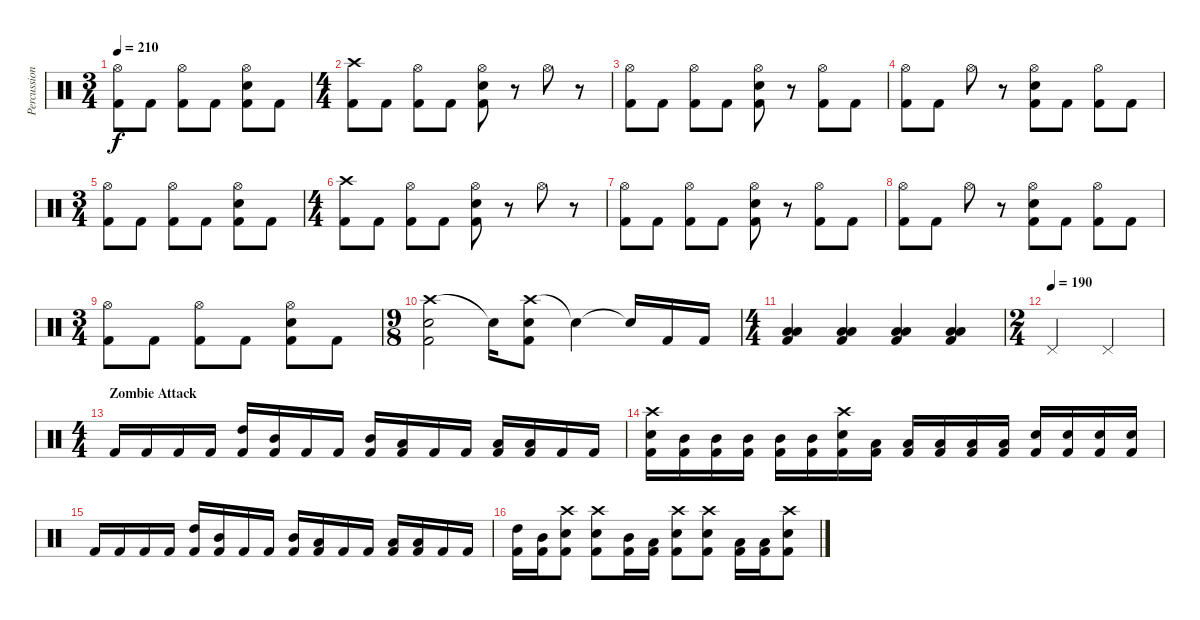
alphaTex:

\track ("Percussion" "Percussion") {instrument percussion}
\staff {score}
\articulation defaults
\ts (3 4)
\tempo 210
\clef neutral
\ks c
("Hi-Hat (open)" "Kick (hit) 2").8{dy f} "Kick (hit) 2".8 ("Hi-Hat (open)" "Kick (hit) 2").8 "Kick (hit) 2".8 ("Hi-Hat (open)" "Electric Snare (hit)" "Kick (hit) 2").8 "Kick (hit) 2".8 |
\ts (4 4)
("Crash high (hit)" "Kick (hit) 2").8 "Kick (hit) 2".8 ("Hi-Hat (open)" "Kick (hit) 2").8 "Kick (hit) 2".8 ("Hi-Hat (open)" "Electric Snare (hit)" "Kick (hit) 2").8 r.8 "Hi-Hat (open)".8 r.8 |
("Hi-Hat (open)" "Kick (hit) 2").8 "Kick (hit) 2".8 ("Hi-Hat (open)" "Kick (hit) 2").8 "Kick (hit) 2".8 ("Hi-Hat (open)" "Electric Snare (hit)" "Kick (hit) 2").8 r.8 ("Hi-Hat (open)" "Kick (hit) 2").8 "Kick (hit) 2".8 |
("Hi-Hat (open)" "Kick (hit) 2").8 "Kick (hit) 2".8 "Hi-Hat (open)".8 r.8 ("Hi-Hat (open)" "Electric Snare (hit)" "Kick (hit) 2").8 "Kick (hit) 2".8 ("Hi-Hat (open)" "Kick (hit) 2").8 "Kick (hit) 2".8 |
\ts (3 4)
("Hi-Hat (open)" "Kick (hit) 2").8 "Kick (hit) 2".8 ("Hi-Hat (open)" "Kick (hit) 2").8 "Kick (hit) 2".8 ("Hi-Hat (open)" "Electric Snare (hit)" "Kick (hit) 2").8 "Kick (hit) 2".8 |
\ts (4 4)
("Crash high (hit)" "Kick (hit) 2").8 "Kick (hit) 2".8 ("Hi-Hat (open)" "Kick (hit) 2").8 "Kick (hit) 2".8 ("Hi-Hat (open)" "Electric Snare (hit)" "Kick (hit) 2").8 r.8 "Hi-Hat (open)".8 r.8 |
("Hi-Hat (open)" "Kick (hit) 2").8 "Kick (hit) 2".8 ("Hi-Hat (open)" "Kick (hit) 2").8 "Kick (hit) 2".8 ("Hi-Hat (open)" "Electric Snare (hit)" "Kick (hit) 2").8 r.8 ("Hi-Hat (open)" "Kick (hit) 2").8 "Kick (hit) 2".8 |
("Hi-Hat (open)" "Kick (hit) 2").8 "Kick (hit) 2".8 "Hi-Hat (open)".8 r.8 ("Hi-Hat (open)" "Electric Snare (hit)" "Kick (hit) 2").8 "Kick (hit) 2".8 ("Hi-Hat (open)" "Kick (hit) 2").8 "Kick (hit) 2".8 |
\ts (3 4)
("Hi-Hat (open)" "Kick (hit) 2").8 "Kick (hit) 2".8 ("Hi-Hat (open)" "Kick (hit) 2").8 "Kick (hit) 2".8 ("Hi-Hat (open)" "Electric Snare (hit)" "Kick (hit) 2").8 "Kick (hit) 2".8 |
\ts (9 8)
("Crash high (hit)" "Electric Snare (hit)" "Kick (hit) 2").2 "Snare (hit)"{t}.16 ("Crash high (hit)" "Electric Snare (hit)" "Kick (hit) 2").8 "Snare (hit)"{t}.4 "Snare (hit)"{t}.16 "Kick (hit) 2".16 "Kick (hit) 2".16 |
\ts (4 4)
("Low Tom (hit)" "Low Floor Tom (hit)" "Kick (hit) 2").4 ("Low Floor Tom (hit)" "Low Floor Tom (hit)" "Kick (hit) 2").4 ("Low Tom (hit)" "Low Floor Tom (hit)" "Kick (hit) 2").4 ("Low Tom (hit)" "Low Floor Tom (hit)" "Kick (hit) 2").4 |
\ts (2 4)
\tempo (190)
"Pedal Hi-Hat (hit)".4 "Pedal Hi-Hat (hit)".4 |
\ts (4 4)
\section ("" "Zombie Attack")
"Kick (hit) 2".16 "Kick (hit) 2".16 "Kick (hit) 2".16 "Kick (hit) 2".16 ("High Tom (hit)" "Kick (hit) 2").16 ("Mid Tom (hit)" "Kick (hit) 2").16 "Kick (hit) 2".16 "Kick (hit) 2".16 ("Mid Tom (hit)" "Kick (hit) 2").16 ("Low Tom (hit)" "Kick (hit) 2").16 "Kick (hit) 2".16 "Kick (hit) 2".16 ("Low Tom (hit)" "Kick (hit) 2").16 ("Low Floor Tom (hit)" "Kick (hit) 2").16 "Kick (hit) 2".16 "Kick (hit) 2".16 |
("Crash high (hit)" "Electric Snare (hit)" "Kick (hit) 2").16 ("Mid Tom (hit)" "Kick (hit) 2").16 ("Mid Tom (hit)" "Kick (hit) 2").16 ("Mid Tom (hit)" "Kick (hit) 2").16 ("Mid Tom (hit)" "Kick (hit) 2").16 ("Mid Tom (hit)" "Kick (hit) 2").16 ("Crash high (hit)" "Electric Snare (hit)" "Kick (hit) 2").16 ("Low Tom (hit)" "Kick (hit) 2").16 ("Low Tom (hit)" "Kick (hit) 2").16 ("Low Tom (hit)" "Kick (hit) 2").16 ("Low Tom (hit)" "Kick (hit) 2").16 ("Low Tom (hit)" "Kick (hit) 2").16 ("Electric Snare (hit)" "Kick (hit) 2").16 ("Electric Snare (hit)" "Kick (hit) 2").16 ("Electric Snare (hit)" "Kick (hit) 2").16 ("Electric Snare (hit)" "Kick (hit) 2").16 |
"Kick (hit) 2".16 "Kick (hit) 2".16 "Kick (hit) 2".16 "Kick (hit) 2".16 ("High Tom (hit)" "Kick (hit) 2").16 ("Mid Tom (hit)" "Kick (hit) 2").16 "Kick (hit) 2".16 "Kick (hit) 2".16 ("Mid Tom (hit)" "Kick (hit) 2").16 ("Low Tom (hit)" "Kick (hit) 2").16 "Kick (hit) 2".16 "Kick (hit) 2".16 ("Low Tom (hit)" "Kick (hit) 2").16 ("Low Floor Tom (hit)" "Kick (hit) 2").16 "Kick (hit) 2".16 "Kick (hit) 2".16 |
("High Tom (hit)" "Kick (hit) 2").16 ("Mid Tom (hit)" "Kick (hit) 2").16 ("Crash high (hit)" "Electric Snare (hit)" "Kick (hit) 2").8 ("Crash high (hit)" "Electric Snare (hit)" "Kick (hit) 2").8 ("Mid Tom (hit)" "Kick (hit) 2").16 ("Low Tom (hit)" "Kick (hit) 2").16 ("Crash high (hit)" "Electric Snare (hit)" "Kick (hit) 2").8 ("Crash high (hit)" "Electric Snare (hit)" "Kick (hit) 2").8 ("Low Tom (hit)" "Kick (hit) 2").16 ("Low Floor Tom (hit)" "Kick (hit) 2").16 ("Crash high (hit)" "Electric Snare (hit)" "Kick (hit) 2").8
